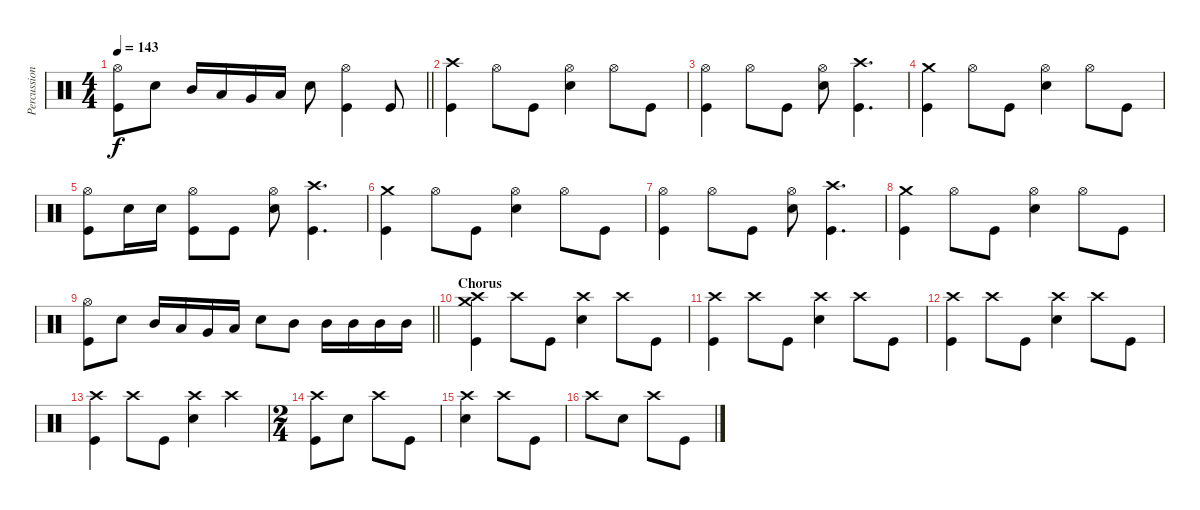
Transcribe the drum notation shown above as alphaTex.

\track ("Percussion" "Percussion") {instrument percussion}
\staff {score}
\articulation defaults
\ts (4 4)
\tempo 143
\clef neutral
\barLineRight lightlight
\ks c
("Hi-Hat (open)" "Kick (hit)").8{dy f} "Electric Snare (hit)".8 "Mid Tom (hit)".16 "Low Tom (hit)".16 "Very Low Tom (hit)".16 "Low Floor Tom (hit)".16 "Electric Snare (hit)".8 ("Hi-Hat (open)" "Kick (hit)").4 "Kick (hit)".8 |
("Crash high (hit)" "Kick (hit)").4 "Hi-Hat (open)".8 "Kick (hit)".8 ("Hi-Hat (open)" "Electric Snare (hit)").4 "Hi-Hat (open)".8 "Kick (hit)".8 |
("Hi-Hat (open)" "Kick (hit)").4 "Hi-Hat (open)".8 "Kick (hit)".8 ("Hi-Hat (open)" "Electric Snare (hit)").8 ("Crash high (hit)" "Kick (hit)").4{d} |
("Crash medium (hit)" "Kick (hit)").4 "Hi-Hat (open)".8 "Kick (hit)".8 ("Hi-Hat (open)" "Electric Snare (hit)").4 "Hi-Hat (open)".8 "Kick (hit)".8 |
("Hi-Hat (open)" "Kick (hit)").8 "Electric Snare (hit)".16 "Electric Snare (hit)".16 ("Hi-Hat (open)" "Kick (hit)").8 "Kick (hit)".8 ("Hi-Hat (open)" "Electric Snare (hit)").8 ("Crash high (hit)" "Kick (hit)").4{d} |
("Crash medium (hit)" "Kick (hit)").4 "Hi-Hat (open)".8 "Kick (hit)".8 ("Hi-Hat (open)" "Electric Snare (hit)").4 "Hi-Hat (open)".8 "Kick (hit)".8 |
("Hi-Hat (open)" "Kick (hit)").4 "Hi-Hat (open)".8 "Kick (hit)".8 ("Hi-Hat (open)" "Electric Snare (hit)").8 ("Crash high (hit)" "Kick (hit)").4{d} |
("Crash medium (hit)" "Kick (hit)").4 "Hi-Hat (open)".8 "Kick (hit)".8 ("Hi-Hat (open)" "Electric Snare (hit)").4 "Hi-Hat (open)".8 "Kick (hit)".8 |
\barLineRight lightlight
("Hi-Hat (open)" "Kick (hit)").8 "Electric Snare (hit)".8 "Mid Tom (hit)".16 "Low Tom (hit)".16 "Very Low Tom (hit)".16 "Low Floor Tom (hit)".16 "Electric Snare (hit)".8 "Mid Tom (hit)".8 "Mid Tom (hit)".16 "Mid Tom (hit)".16 "Mid Tom (hit)".16 "Mid Tom (hit)".16 |
\section ("" "Chorus")
("Crash high (hit)" "Crash medium (hit)" "Kick (hit)").4 "Crash high (hit)".8 "Kick (hit)".8 ("Crash high (hit)" "Electric Snare (hit)").4 "Crash high (hit)".8 "Kick (hit)".8 |
("Crash high (hit)" "Kick (hit)").4 "Crash high (hit)".8 "Kick (hit)".8 ("Crash high (hit)" "Electric Snare (hit)").4 "Crash high (hit)".8 "Kick (hit)".8 |
("Crash high (hit)" "Kick (hit)").4 "Crash high (hit)".8 "Kick (hit)".8 ("Crash high (hit)" "Electric Snare (hit)").4 "Crash high (hit)".8 "Kick (hit)".8 |
("Crash high (hit)" "Kick (hit)").4 "Crash high (hit)".8 "Kick (hit)".8 ("Crash high (hit)" "Electric Snare (hit)").4 "Crash high (hit)".4 |
\ts (2 4)
("Crash high (hit)" "Kick (hit)").8 "Electric Snare (hit)".8 "Crash high (hit)".8 "Kick (hit)".8 |
("Crash high (hit)" "Electric Snare (hit)").4 "Crash high (hit)".8 "Kick (hit)".8 |
"Crash high (hit)".8 "Electric Snare (hit)".8 "Crash high (hit)".8 "Kick (hit)".8
